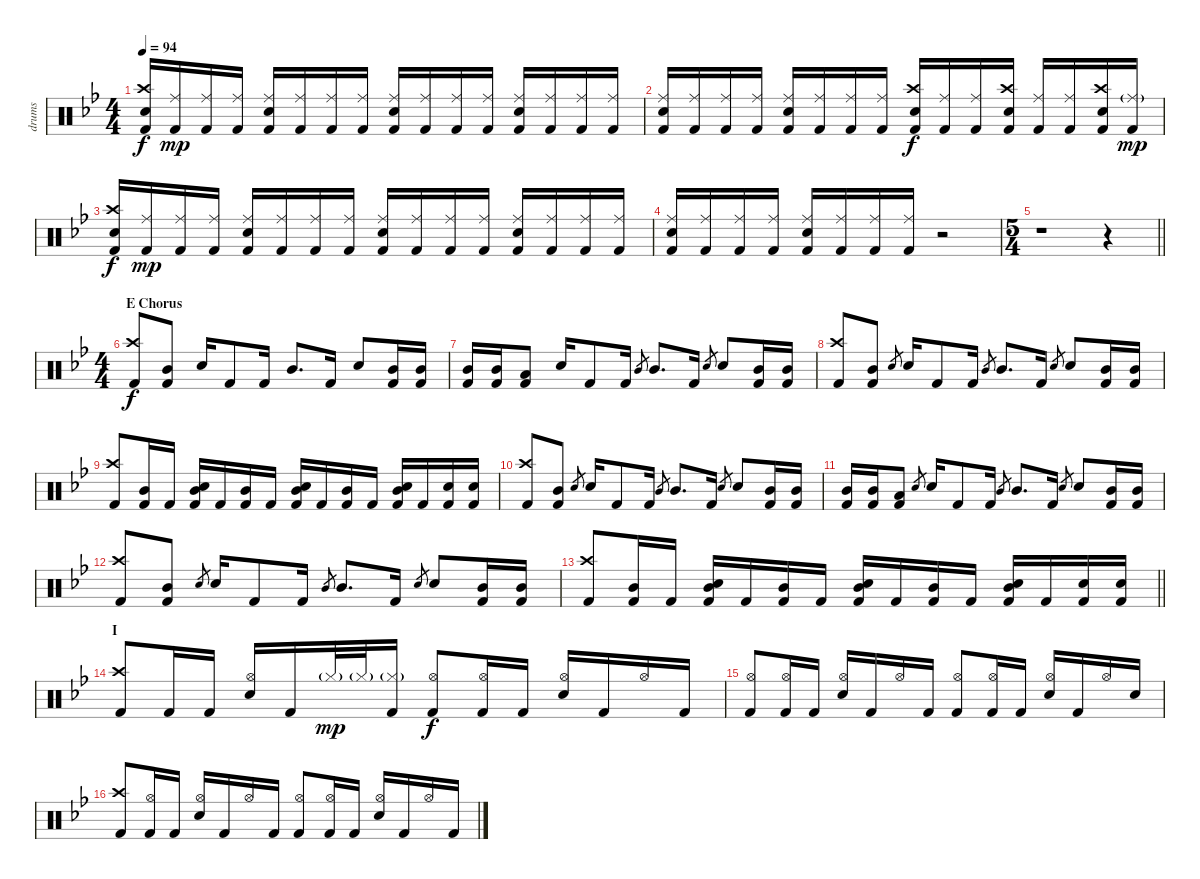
\track ("drums" "drums") {instrument percussion}
\staff {score}
\articulation defaults
\ts (4 4)
\tempo 94
\clef neutral
\ks bb
("Crash high (hit)" "Snare (hit) 2" "Kick (hit) 2").16{dy f beam Up} ("Ride (middle)" "Kick (hit) 2").16{dy mp beam Up} ("Ride (middle)" "Kick (hit) 2").16{beam Up} ("Ride (middle)" "Kick (hit) 2").16{beam Up} ("Ride (middle)" "Snare (hit) 2" "Kick (hit) 2").16{beam Up} ("Ride (middle)" "Kick (hit) 2").16{beam Up} ("Ride (middle)" "Kick (hit) 2").16{beam Up} ("Ride (middle)" "Kick (hit) 2").16{beam Up} ("Ride (middle)" "Snare (hit) 2" "Kick (hit) 2").16{beam Up} ("Ride (middle)" "Kick (hit) 2").16{beam Up} ("Ride (middle)" "Kick (hit) 2").16{beam Up} ("Ride (middle)" "Kick (hit) 2").16{beam Up} ("Ride (middle)" "Snare (hit) 2" "Kick (hit) 2").16{beam Up} ("Ride (middle)" "Kick (hit) 2").16{beam Up} ("Ride (middle)" "Kick (hit) 2").16{beam Up} ("Ride (middle)" "Kick (hit) 2").16{beam Up} |
("Ride (middle)" "Snare (hit) 2" "Kick (hit) 2").16{beam Up} ("Ride (middle)" "Kick (hit) 2").16{beam Up} ("Ride (middle)" "Kick (hit) 2").16{beam Up} ("Ride (middle)" "Kick (hit) 2").16{beam Up} ("Ride (middle)" "Snare (hit) 2" "Kick (hit) 2").16{beam Up} ("Ride (middle)" "Kick (hit) 2").16{beam Up} ("Ride (middle)" "Kick (hit) 2").16{beam Up} ("Ride (middle)" "Kick (hit) 2").16{beam Up} ("Crash high (hit)" "Snare (hit) 2" "Kick (hit) 2").16{dy f beam Up} ("Ride (middle)" "Kick (hit) 2").16{beam Up} ("Ride (middle)" "Kick (hit) 2").16{beam Up} ("Crash high (hit)" "Snare (hit) 2" "Kick (hit) 2").16{beam Up} ("Ride (middle)" "Kick (hit) 2").16{beam Up} ("Ride (middle)" "Kick (hit) 2").16{beam Up} ("Crash high (hit)" "Snare (hit) 2" "Kick (hit) 2").16{beam Up} ("Ride (middle)"{g} "Kick (hit) 2").16{dy mp beam Up} |
("Crash high (hit)" "Snare (hit) 2" "Kick (hit) 2").16{dy f beam Up} ("Ride (middle)" "Kick (hit) 2").16{dy mp beam Up} ("Ride (middle)" "Kick (hit) 2").16{beam Up} ("Ride (middle)" "Kick (hit) 2").16{beam Up} ("Ride (middle)" "Snare (hit) 2" "Kick (hit) 2").16{beam Up} ("Ride (middle)" "Kick (hit) 2").16{beam Up} ("Ride (middle)" "Kick (hit) 2").16{beam Up} ("Ride (middle)" "Kick (hit) 2").16{beam Up} ("Ride (middle)" "Snare (hit) 2" "Kick (hit) 2").16{beam Up} ("Ride (middle)" "Kick (hit) 2").16{beam Up} ("Ride (middle)" "Kick (hit) 2").16{beam Up} ("Ride (middle)" "Kick (hit) 2").16{beam Up} ("Ride (middle)" "Snare (hit) 2" "Kick (hit) 2").16{beam Up} ("Ride (middle)" "Kick (hit) 2").16{beam Up} ("Ride (middle)" "Kick (hit) 2").16{beam Up} ("Ride (middle)" "Kick (hit) 2").16{beam Up} |
("Ride (middle)" "Snare (hit) 2" "Kick (hit) 2").16{beam Up} ("Ride (middle)" "Kick (hit) 2").16{beam Up} ("Ride (middle)" "Kick (hit) 2").16{beam Up} ("Ride (middle)" "Kick (hit) 2").16{beam Up} ("Ride (middle)" "Snare (hit) 2" "Kick (hit) 2").16{beam Up} ("Ride (middle)" "Kick (hit) 2").16{beam Up} ("Ride (middle)" "Kick (hit) 2").16{beam Up} ("Ride (middle)" "Kick (hit) 2").16{beam Up} r.2 |
\ts (5 4)
\barLineRight lightlight
r.1 r.4 |
\ts (4 4)
\section ("" "E Chorus")
\ks gminor
("Crash high (hit)" "Kick (hit) 2").8{dy f beam Up} ("Mid Tom (hit)" "Kick (hit) 2").8{beam Up} "Snare (hit) 2".16 "Kick (hit) 2".8 "Kick (hit) 2".16 "Mid Tom (hit)".8{d beam Up} "Kick (hit) 2".16{beam Up} "Snare (hit) 2".8{beam Up} ("Mid Tom (hit)" "Kick (hit) 2").16{beam Up} ("Mid Tom (hit)" "Kick (hit) 2").16{beam Up} |
("Mid Tom (hit)" "Kick (hit) 2").16{beam Up} ("Mid Tom (hit)" "Kick (hit) 2").16{beam Up} ("Low Tom (hit)" "Kick (hit) 2").8{beam Up} "Snare (hit) 2".16 "Kick (hit) 2".8 "Kick (hit) 2".16 "Mid Tom (hit)".8{gr} "Mid Tom (hit)".8{d beam Up} "Kick (hit) 2".16{beam Up} "Snare (hit) 2".8{gr} "Snare (hit) 2".8{beam Up} ("Mid Tom (hit)" "Kick (hit) 2").16{beam Up} ("Mid Tom (hit)" "Kick (hit) 2").16{beam Up} |
("Crash high (hit)" "Kick (hit) 2").8{beam Up} ("Mid Tom (hit)" "Kick (hit) 2").8{beam Up} "Snare (hit) 2".8{gr} "Snare (hit) 2".16 "Kick (hit) 2".8 "Kick (hit) 2".16 "Mid Tom (hit)".8{gr} "Mid Tom (hit)".8{d beam Up} "Kick (hit) 2".16{beam Up} "Snare (hit) 2".8{gr} "Snare (hit) 2".8{beam Up} ("Mid Tom (hit)" "Kick (hit) 2").16{beam Up} ("Mid Tom (hit)" "Kick (hit) 2").16{beam Up} |
("Crash high (hit)" "Kick (hit) 2").8{beam Up} ("Mid Tom (hit)" "Kick (hit) 2").16{beam Up} "Kick (hit) 2".16{beam Up} ("Mid Tom (hit)" "Snare (hit) 2" "Kick (hit) 2").16{beam Up} "Kick (hit) 2".16{beam Up} ("Mid Tom (hit)" "Kick (hit) 2").16{beam Up} "Kick (hit) 2".16{beam Up} ("Mid Tom (hit)" "Snare (hit) 2" "Kick (hit) 2").16{beam Up} "Kick (hit) 2".16{beam Up} ("Mid Tom (hit)" "Kick (hit) 2").16{beam Up} "Kick (hit) 2".16{beam Up} ("Mid Tom (hit)" "Snare (hit) 2" "Kick (hit) 2").16{beam Up} "Kick (hit) 2".16{beam Up} ("Snare (hit) 2" "Kick (hit) 2").16{beam Up} ("Snare (hit) 2" "Kick (hit) 2").16{beam Up} |
("Crash high (hit)" "Kick (hit) 2").8{beam Up} ("Mid Tom (hit)" "Kick (hit) 2").8{beam Up} "Snare (hit) 2".8{gr} "Snare (hit) 2".16 "Kick (hit) 2".8 "Kick (hit) 2".16 "Mid Tom (hit)".8{gr} "Mid Tom (hit)".8{d beam Up} "Kick (hit) 2".16{beam Up} "Snare (hit) 2".8{gr} "Snare (hit) 2".8{beam Up} ("Mid Tom (hit)" "Kick (hit) 2").16{beam Up} ("Mid Tom (hit)" "Kick (hit) 2").16{beam Up} |
("Mid Tom (hit)" "Kick (hit) 2").16{beam Up} ("Mid Tom (hit)" "Kick (hit) 2").16{beam Up} ("Low Tom (hit)" "Kick (hit) 2").8{beam Up} "Snare (hit) 2".8{gr} "Snare (hit) 2".16 "Kick (hit) 2".8 "Kick (hit) 2".16 "Mid Tom (hit)".8{gr} "Mid Tom (hit)".8{d beam Up} "Kick (hit) 2".16{beam Up} "Snare (hit) 2".8{gr} "Snare (hit) 2".8{beam Up} ("Mid Tom (hit)" "Kick (hit) 2").16{beam Up} ("Mid Tom (hit)" "Kick (hit) 2").16{beam Up} |
("Crash high (hit)" "Kick (hit) 2").8{beam Up} ("Mid Tom (hit)" "Kick (hit) 2").8{beam Up} "Snare (hit) 2".8{gr} "Snare (hit) 2".16 "Kick (hit) 2".8 "Kick (hit) 2".16 "Mid Tom (hit)".8{gr} "Mid Tom (hit)".8{d beam Up} "Kick (hit) 2".16{beam Up} "Snare (hit) 2".8{gr} "Snare (hit) 2".8{beam Up} ("Mid Tom (hit)" "Kick (hit) 2").16{beam Up} ("Mid Tom (hit)" "Kick (hit) 2").16{beam Up} |
\barLineRight lightlight
("Crash high (hit)" "Kick (hit) 2").8{beam Up} ("Mid Tom (hit)" "Kick (hit) 2").16{beam Up} "Kick (hit) 2".16{beam Up} ("Mid Tom (hit)" "Snare (hit) 2" "Kick (hit) 2").16{beam Up} "Kick (hit) 2".16{beam Up} ("Mid Tom (hit)" "Kick (hit) 2").16{beam Up} "Kick (hit) 2".16{beam Up} ("Mid Tom (hit)" "Snare (hit) 2" "Kick (hit) 2").16{beam Up} "Kick (hit) 2".16{beam Up} ("Mid Tom (hit)" "Kick (hit) 2").16{beam Up} "Kick (hit) 2".16{beam Up} ("Mid Tom (hit)" "Snare (hit) 2" "Kick (hit) 2").16{beam Up} "Kick (hit) 2".16{beam Up} ("Snare (hit) 2" "Kick (hit) 2").16{beam Up} ("Snare (hit) 2" "Kick (hit) 2").16{beam Up} |
\section ("" "I")
("Crash high (hit)" "Kick (hit) 2").8{beam Up} "Kick (hit) 2".16{beam Up} "Kick (hit) 2".16{beam Up} ("Snare (hit) 2" "Hi-Hat (open)").16{beam Up} "Kick (hit) 2".16{beam Up} "Hi-Hat (closed)"{g}.32{dy mp beam Up} "Hi-Hat (closed)"{g}.32{beam Up} ("Hi-Hat (closed)"{g} "Kick (hit) 2").16{beam Up} ("Hi-Hat (open)" "Kick (hit) 2").8{dy f beam Up} ("Hi-Hat (open)" "Kick (hit) 2").16{beam Up} "Kick (hit) 2".16{beam Up} ("Snare (hit) 2" "Hi-Hat (open)").16{beam Up} "Kick (hit) 2".16{beam Up} "Hi-Hat (open)".16{beam Up} "Kick (hit) 2".16{beam Up} |
\ks bb
("Hi-Hat (open)" "Kick (hit) 2").8{beam Up} ("Hi-Hat (open)" "Kick (hit) 2").16{beam Up} "Kick (hit) 2".16{beam Up} ("Snare (hit) 2" "Hi-Hat (open)").16{beam Up} "Kick (hit) 2".16{beam Up} "Hi-Hat (open)".16{beam Up} "Kick (hit) 2".16{beam Up} ("Hi-Hat (open)" "Kick (hit) 2").8{beam Up} ("Hi-Hat (open)" "Kick (hit) 2").16{beam Up} "Kick (hit) 2".16{beam Up} ("Snare (hit) 2" "Hi-Hat (open)").16{beam Up} "Kick (hit) 2".16{beam Up} "Hi-Hat (open)".16{beam Up} "Snare (hit) 2".16{beam Up} |
("Crash high (hit)" "Kick (hit) 2").8{beam Up} ("Hi-Hat (open)" "Kick (hit) 2").16{beam Up} "Kick (hit) 2".16{beam Up} ("Snare (hit) 2" "Hi-Hat (open)").16{beam Up} "Kick (hit) 2".16{beam Up} "Hi-Hat (open)".16{beam Up} "Kick (hit) 2".16{beam Up} ("Hi-Hat (open)" "Kick (hit) 2").8{beam Up} ("Hi-Hat (open)" "Kick (hit) 2").16{beam Up} "Kick (hit) 2".16{beam Up} ("Snare (hit) 2" "Hi-Hat (open)").16{beam Up} "Kick (hit) 2".16{beam Up} "Hi-Hat (open)".16{beam Up} "Kick (hit) 2".16{beam Up}
